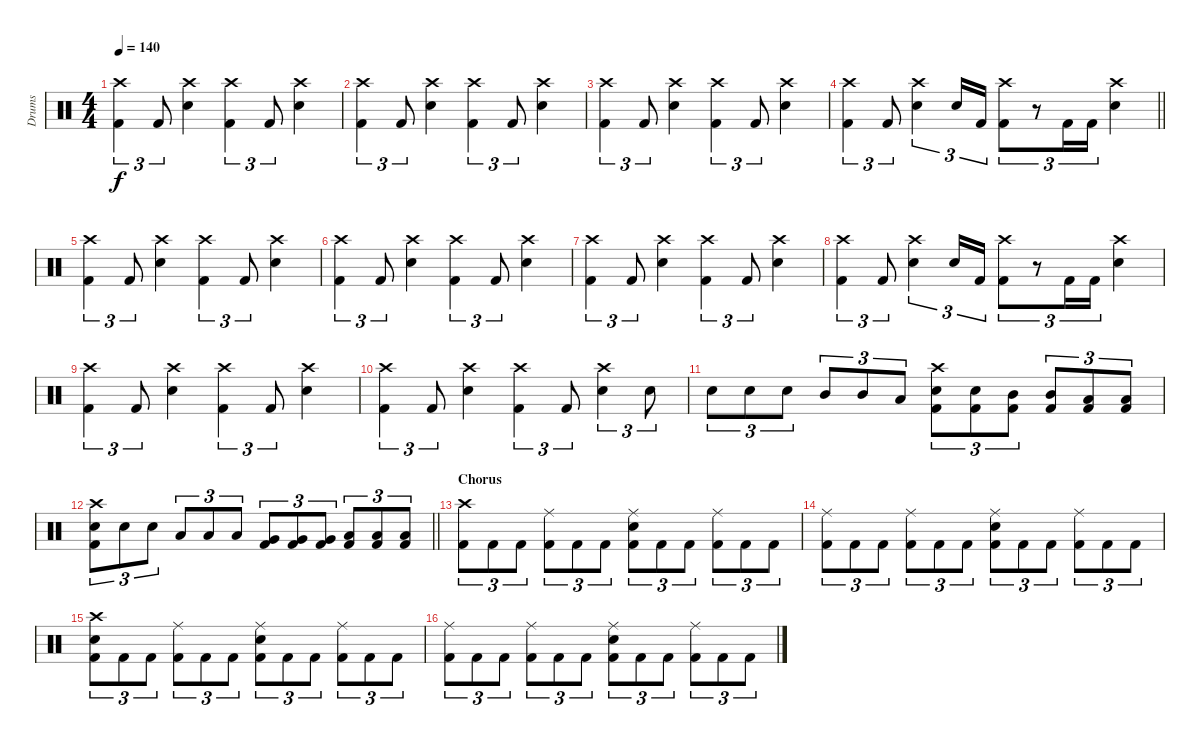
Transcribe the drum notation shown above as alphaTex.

\track ("Drums" "Drums") {instrument percussion}
\staff {score}
\articulation defaults
\ts (4 4)
\tempo 140
\clef neutral
\ks c
("Crash high (hit)" "Kick (hit) 2").4{tu (3 2) dy f} "Kick (hit) 2".8{tu (3 2)} ("Crash high (hit)" "Snare (hit) 2").4 ("Crash high (hit)" "Kick (hit) 2").4{tu (3 2)} "Kick (hit) 2".8{tu (3 2)} ("Crash high (hit)" "Snare (hit) 2").4 |
("Crash high (hit)" "Kick (hit) 2").4{tu (3 2)} "Kick (hit) 2".8{tu (3 2)} ("Crash high (hit)" "Snare (hit) 2").4 ("Crash high (hit)" "Kick (hit) 2").4{tu (3 2)} "Kick (hit) 2".8{tu (3 2)} ("Crash high (hit)" "Snare (hit) 2").4 |
("Crash high (hit)" "Kick (hit) 2").4{tu (3 2)} "Kick (hit) 2".8{tu (3 2)} ("Crash high (hit)" "Snare (hit) 2").4 ("Crash high (hit)" "Kick (hit) 2").4{tu (3 2)} "Kick (hit) 2".8{tu (3 2)} ("Crash high (hit)" "Snare (hit) 2").4 |
\barLineRight lightlight
("Crash high (hit)" "Kick (hit) 2").4{tu (3 2)} "Kick (hit) 2".8{tu (3 2)} ("Crash high (hit)" "Snare (hit) 2").4{tu (3 2)} "Snare (hit) 2".16{tu (3 2)} "Kick (hit) 2".16{tu (3 2)} ("Crash high (hit)" "Kick (hit) 2").8{tu (3 2)} r.8{tu (3 2)} "Kick (hit) 2".16{tu (3 2)} "Kick (hit) 2".16{tu (3 2)} ("Crash high (hit)" "Snare (hit) 2").4 |
("Crash high (hit)" "Kick (hit) 2").4{tu (3 2)} "Kick (hit) 2".8{tu (3 2)} ("Crash high (hit)" "Snare (hit) 2").4 ("Crash high (hit)" "Kick (hit) 2").4{tu (3 2)} "Kick (hit) 2".8{tu (3 2)} ("Crash high (hit)" "Snare (hit) 2").4 |
("Crash high (hit)" "Kick (hit) 2").4{tu (3 2)} "Kick (hit) 2".8{tu (3 2)} ("Crash high (hit)" "Snare (hit) 2").4 ("Crash high (hit)" "Kick (hit) 2").4{tu (3 2)} "Kick (hit) 2".8{tu (3 2)} ("Crash high (hit)" "Snare (hit) 2").4 |
("Crash high (hit)" "Kick (hit) 2").4{tu (3 2)} "Kick (hit) 2".8{tu (3 2)} ("Crash high (hit)" "Snare (hit) 2").4 ("Crash high (hit)" "Kick (hit) 2").4{tu (3 2)} "Kick (hit) 2".8{tu (3 2)} ("Crash high (hit)" "Snare (hit) 2").4 |
("Crash high (hit)" "Kick (hit) 2").4{tu (3 2)} "Kick (hit) 2".8{tu (3 2)} ("Crash high (hit)" "Snare (hit) 2").4{tu (3 2)} "Snare (hit) 2".16{tu (3 2)} "Kick (hit) 2".16{tu (3 2)} ("Crash high (hit)" "Kick (hit) 2").8{tu (3 2)} r.8{tu (3 2)} "Kick (hit) 2".16{tu (3 2)} "Kick (hit) 2".16{tu (3 2)} ("Crash high (hit)" "Snare (hit) 2").4 |
("Crash high (hit)" "Kick (hit) 2").4{tu (3 2)} "Kick (hit) 2".8{tu (3 2)} ("Crash high (hit)" "Snare (hit) 2").4 ("Crash high (hit)" "Kick (hit) 2").4{tu (3 2)} "Kick (hit) 2".8{tu (3 2)} ("Crash high (hit)" "Snare (hit) 2").4 |
("Crash high (hit)" "Kick (hit) 2").4{tu (3 2)} "Kick (hit) 2".8{tu (3 2)} ("Crash high (hit)" "Snare (hit) 2").4 ("Crash high (hit)" "Kick (hit) 2").4{tu (3 2)} "Kick (hit) 2".8{tu (3 2)} ("Crash high (hit)" "Snare (hit) 2").4{tu (3 2)} "Snare (hit) 2".8{tu (3 2)} |
"Snare (hit) 2".8{tu (3 2)} "Snare (hit) 2".8{tu (3 2)} "Snare (hit) 2".8{tu (3 2)} "Mid Tom (hit)".8{tu (3 2)} "Mid Tom (hit)".8{tu (3 2)} "Low Tom (hit)".8{tu (3 2)} ("Crash high (hit)" "Snare (hit) 2" "Kick (hit) 2").8{tu (3 2)} ("Snare (hit) 2" "Kick (hit) 2").8{tu (3 2)} ("Mid Tom (hit)" "Kick (hit) 2").8{tu (3 2)} ("Mid Tom (hit)" "Kick (hit) 2").8{tu (3 2)} ("Low Tom (hit)" "Kick (hit) 2").8{tu (3 2)} ("Low Tom (hit)" "Kick (hit) 2").8{tu (3 2)} |
\barLineRight lightlight
("Crash high (hit)" "Snare (hit) 2" "Kick (hit) 2").8{tu (3 2)} "Snare (hit) 2".8{tu (3 2)} "Snare (hit) 2".8{tu (3 2)} "Low Tom (hit)".8{tu (3 2)} "Low Tom (hit)".8{tu (3 2)} "Low Tom (hit)".8{tu (3 2)} ("Very Low Tom (hit)" "Kick (hit) 2").8{tu (3 2)} ("Very Low Tom (hit)" "Kick (hit) 2").8{tu (3 2)} ("Very Low Tom (hit)" "Kick (hit) 2").8{tu (3 2)} ("Low Floor Tom (hit)" "Kick (hit) 2").8{tu (3 2)} ("Low Floor Tom (hit)" "Kick (hit) 2").8{tu (3 2)} ("Low Floor Tom (hit)" "Kick (hit) 2").8{tu (3 2)} |
\section ("" "Chorus")
("Crash high (hit)" "Kick (hit) 2").8{tu (3 2)} "Kick (hit) 2".8{tu (3 2)} "Kick (hit) 2".8{tu (3 2)} ("Ride (middle)" "Kick (hit) 2").8{tu (3 2)} "Kick (hit) 2".8{tu (3 2)} "Kick (hit) 2".8{tu (3 2)} ("Ride (middle)" "Snare (hit) 2" "Kick (hit) 2").8{tu (3 2)} "Kick (hit) 2".8{tu (3 2)} "Kick (hit) 2".8{tu (3 2)} ("Ride (middle)" "Kick (hit) 2").8{tu (3 2)} "Kick (hit) 2".8{tu (3 2)} "Kick (hit) 2".8{tu (3 2)} |
("Ride (middle)" "Kick (hit) 2").8{tu (3 2)} "Kick (hit) 2".8{tu (3 2)} "Kick (hit) 2".8{tu (3 2)} ("Ride (middle)" "Kick (hit) 2").8{tu (3 2)} "Kick (hit) 2".8{tu (3 2)} "Kick (hit) 2".8{tu (3 2)} ("Ride (middle)" "Snare (hit) 2" "Kick (hit) 2").8{tu (3 2)} "Kick (hit) 2".8{tu (3 2)} "Kick (hit) 2".8{tu (3 2)} ("Ride (middle)" "Kick (hit) 2").8{tu (3 2)} "Kick (hit) 2".8{tu (3 2)} "Kick (hit) 2".8{tu (3 2)} |
("Crash high (hit)" "Snare (hit) 2" "Kick (hit) 2").8{tu (3 2)} "Kick (hit) 2".8{tu (3 2)} "Kick (hit) 2".8{tu (3 2)} ("Ride (middle)" "Kick (hit) 2").8{tu (3 2)} "Kick (hit) 2".8{tu (3 2)} "Kick (hit) 2".8{tu (3 2)} ("Ride (middle)" "Snare (hit) 2" "Kick (hit) 2").8{tu (3 2)} "Kick (hit) 2".8{tu (3 2)} "Kick (hit) 2".8{tu (3 2)} ("Ride (middle)" "Kick (hit) 2").8{tu (3 2)} "Kick (hit) 2".8{tu (3 2)} "Kick (hit) 2".8{tu (3 2)} |
("Ride (middle)" "Kick (hit) 2").8{tu (3 2)} "Kick (hit) 2".8{tu (3 2)} "Kick (hit) 2".8{tu (3 2)} ("Ride (middle)" "Kick (hit) 2").8{tu (3 2)} "Kick (hit) 2".8{tu (3 2)} "Kick (hit) 2".8{tu (3 2)} ("Ride (middle)" "Snare (hit) 2" "Kick (hit) 2").8{tu (3 2)} "Kick (hit) 2".8{tu (3 2)} "Kick (hit) 2".8{tu (3 2)} ("Ride (middle)" "Kick (hit) 2").8{tu (3 2)} "Kick (hit) 2".8{tu (3 2)} "Kick (hit) 2".8{tu (3 2)}
